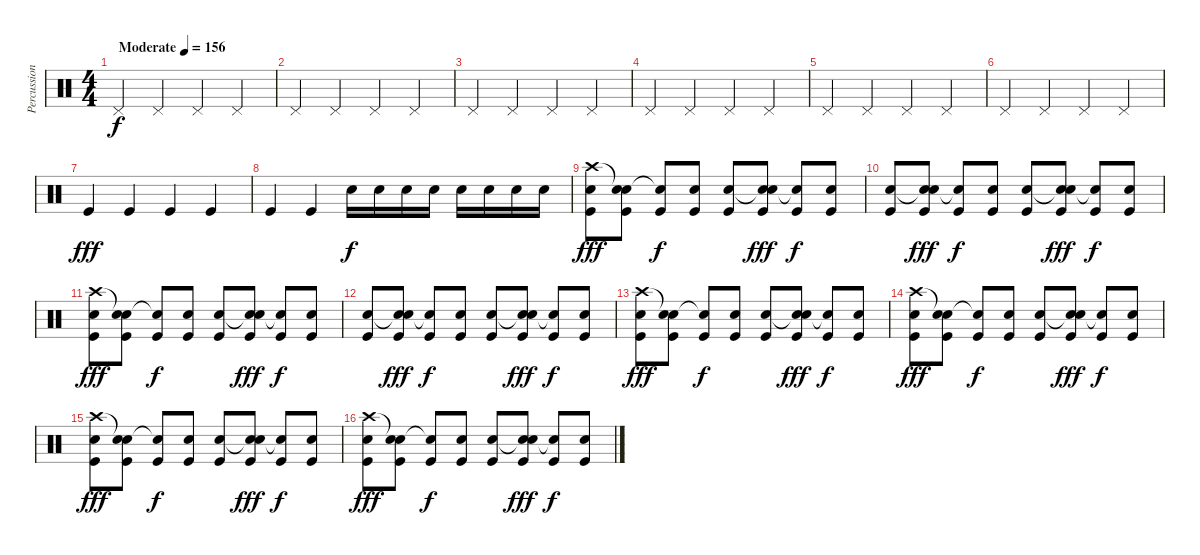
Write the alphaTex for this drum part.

\track ("Percussion" "Percussion") {instrument percussion}
\staff {score}
\articulation defaults
\ts (4 4)
\tempo (156 "Moderate")
\clef neutral
\ks c "Pedal Hi-Hat (hit)".4{dy f} "Pedal Hi-Hat (hit)".4 "Pedal Hi-Hat (hit)".4 "Pedal Hi-Hat (hit)".4
|
"Pedal Hi-Hat (hit)".4 "Pedal Hi-Hat (hit)".4 "Pedal Hi-Hat (hit)".4 "Pedal Hi-Hat (hit)".4 |
"Pedal Hi-Hat (hit)".4 "Pedal Hi-Hat (hit)".4 "Pedal Hi-Hat (hit)".4 "Pedal Hi-Hat (hit)".4 |
"Pedal Hi-Hat (hit)".4 "Pedal Hi-Hat (hit)".4 "Pedal Hi-Hat (hit)".4 "Pedal Hi-Hat (hit)".4 |
"Pedal Hi-Hat (hit)".4 "Pedal Hi-Hat (hit)".4 "Pedal Hi-Hat (hit)".4 "Pedal Hi-Hat (hit)".4 |
"Pedal Hi-Hat (hit)".4 "Pedal Hi-Hat (hit)".4 "Pedal Hi-Hat (hit)".4 "Pedal Hi-Hat (hit)".4 |
"Kick (hit)".4{dy fff} "Kick (hit)".4 "Kick (hit)".4 "Kick (hit)".4 |
"Kick (hit)".4 "Kick (hit)".4 "Electric Snare (hit)".16{dy f} "Electric Snare (hit)".16 "Electric Snare (hit)".16 "Electric Snare (hit)".16 "Electric Snare (hit)".16 "Electric Snare (hit)".16 "Electric Snare (hit)".16 "Electric Snare (hit)".16 |
("Kick (hit)" "Crash high (hit)" "Electric Snare (hit)").8{dy fff} ("Kick (hit)" "Snare (hit)"{t} "Electric Snare (hit)").8 ("Kick (hit)" "Electric Snare (hit)"{t}).8{dy f} ("Kick (hit)" "Electric Snare (hit)").8 ("Kick (hit)" "Electric Snare (hit)").8 ("Kick (hit)" "Snare (hit)"{t} "Electric Snare (hit)").8{dy fff} ("Kick (hit)" "Electric Snare (hit)"{t}).8{dy f} ("Kick (hit)" "Electric Snare (hit)").8 |
("Kick (hit)" "Electric Snare (hit)").8 ("Kick (hit)" "Snare (hit)"{t} "Electric Snare (hit)").8{dy fff} ("Kick (hit)" "Electric Snare (hit)"{t}).8{dy f} ("Kick (hit)" "Electric Snare (hit)").8 ("Kick (hit)" "Electric Snare (hit)").8 ("Kick (hit)" "Snare (hit)"{t} "Electric Snare (hit)").8{dy fff} ("Kick (hit)" "Electric Snare (hit)"{t}).8{dy f} ("Kick (hit)" "Electric Snare (hit)").8 |
("Kick (hit)" "Crash high (hit)" "Electric Snare (hit)").8{dy fff} ("Kick (hit)" "Snare (hit)"{t} "Electric Snare (hit)").8 ("Kick (hit)" "Electric Snare (hit)"{t}).8{dy f} ("Kick (hit)" "Electric Snare (hit)").8 ("Kick (hit)" "Electric Snare (hit)").8 ("Kick (hit)" "Snare (hit)"{t} "Electric Snare (hit)").8{dy fff} ("Kick (hit)" "Electric Snare (hit)"{t}).8{dy f} ("Kick (hit)" "Electric Snare (hit)").8 |
("Kick (hit)" "Electric Snare (hit)").8 ("Kick (hit)" "Snare (hit)"{t} "Electric Snare (hit)").8{dy fff} ("Kick (hit)" "Electric Snare (hit)"{t}).8{dy f} ("Kick (hit)" "Electric Snare (hit)").8 ("Kick (hit)" "Electric Snare (hit)").8 ("Kick (hit)" "Snare (hit)"{t} "Electric Snare (hit)").8{dy fff} ("Kick (hit)" "Electric Snare (hit)"{t}).8{dy f} ("Kick (hit)" "Electric Snare (hit)").8 |
("Kick (hit)" "Crash high (hit)" "Electric Snare (hit)").8{dy fff} ("Kick (hit)" "Snare (hit)"{t} "Electric Snare (hit)").8 ("Kick (hit)" "Electric Snare (hit)"{t}).8{dy f} ("Kick (hit)" "Electric Snare (hit)").8 ("Kick (hit)" "Electric Snare (hit)").8 ("Kick (hit)" "Snare (hit)"{t} "Electric Snare (hit)").8{dy fff} ("Kick (hit)" "Electric Snare (hit)"{t}).8{dy f} ("Kick (hit)" "Electric Snare (hit)").8 |
("Kick (hit)" "Crash high (hit)" "Electric Snare (hit)").8{dy fff} ("Kick (hit)" "Snare (hit)"{t} "Electric Snare (hit)").8 ("Kick (hit)" "Electric Snare (hit)"{t}).8{dy f} ("Kick (hit)" "Electric Snare (hit)").8 ("Kick (hit)" "Electric Snare (hit)").8 ("Kick (hit)" "Snare (hit)"{t} "Electric Snare (hit)").8{dy fff} ("Kick (hit)" "Electric Snare (hit)"{t}).8{dy f} ("Kick (hit)" "Electric Snare (hit)").8 |
("Kick (hit)" "Crash high (hit)" "Electric Snare (hit)").8{dy fff} ("Kick (hit)" "Snare (hit)"{t} "Electric Snare (hit)").8 ("Kick (hit)" "Electric Snare (hit)"{t}).8{dy f} ("Kick (hit)" "Electric Snare (hit)").8 ("Kick (hit)" "Electric Snare (hit)").8 ("Kick (hit)" "Snare (hit)"{t} "Electric Snare (hit)").8{dy fff} ("Kick (hit)" "Electric Snare (hit)"{t}).8{dy f} ("Kick (hit)" "Electric Snare (hit)").8 |
("Kick (hit)" "Crash high (hit)" "Electric Snare (hit)").8{dy fff} ("Kick (hit)" "Snare (hit)"{t} "Electric Snare (hit)").8 ("Kick (hit)" "Electric Snare (hit)"{t}).8{dy f} ("Kick (hit)" "Electric Snare (hit)").8 ("Kick (hit)" "Electric Snare (hit)").8 ("Kick (hit)" "Snare (hit)"{t} "Electric Snare (hit)").8{dy fff} ("Kick (hit)" "Electric Snare (hit)"{t}).8{dy f} ("Kick (hit)" "Electric Snare (hit)").8
